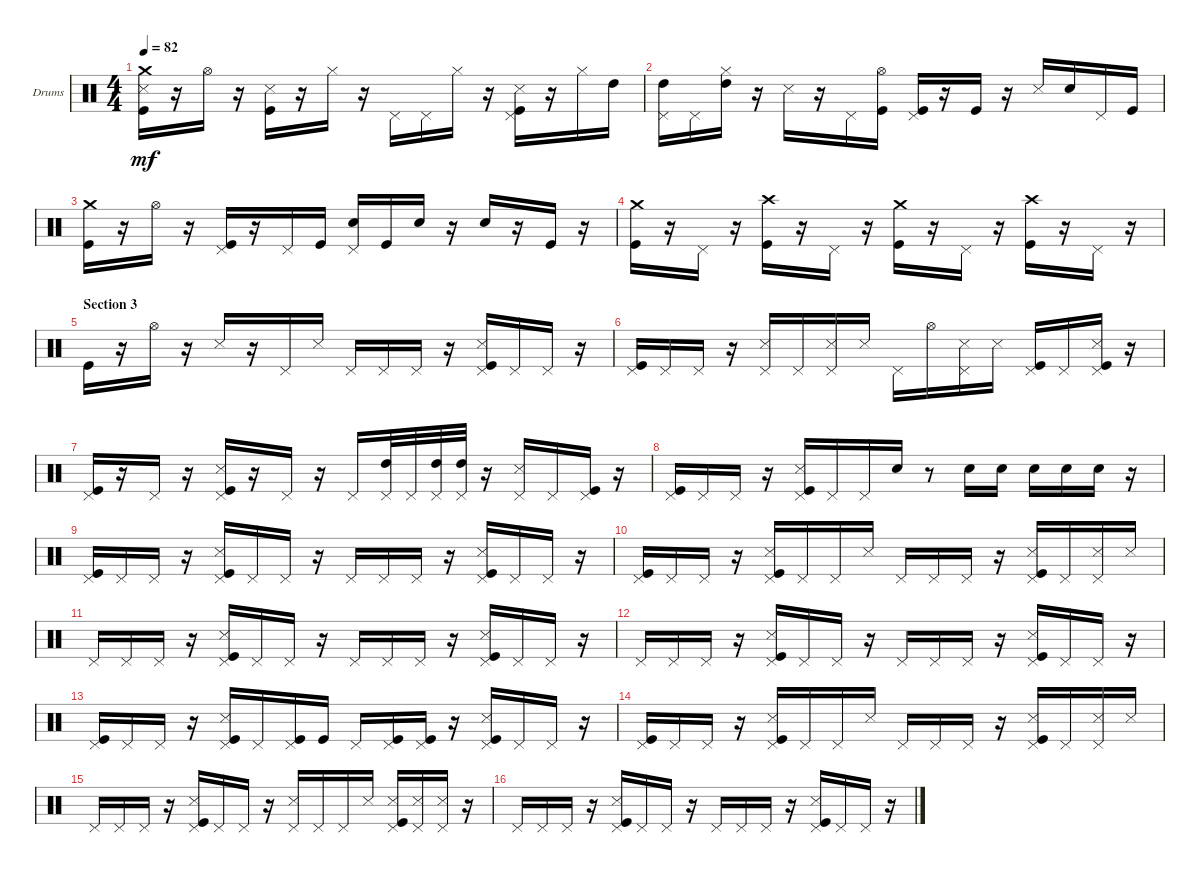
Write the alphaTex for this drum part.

\bracketExtendMode groupsimilarinstruments
\firstSystemTrackNameOrientation horizontal
\otherSystemsTrackNameOrientation horizontal
\track ("Drumkit" "Drums") {instrument percussion}
\staff {score}
\articulation defaults
\ts (4 4)
\tempo 82
\clef neutral
\ks aminor
("Kick (hit)" "Snare (side stick) 3" "Crash medium (hit)").16{dy mf} r.16 "Hi-Hat (open)".16 r.16 ("Kick (hit)" "Snare (side stick) 3").16 r.16 "Hi-Hat (closed)".16 r.16 "Pedal Hi-Hat (hit)".16 "Pedal Hi-Hat (hit)".16 "Hi-Hat (closed)".16 r.16 ("Kick (hit)" "Snare (side stick) 3" "Pedal Hi-Hat (hit)").16 r.16 "Hi-Hat (closed)".16 "High Tom (hit)".16 |
("Pedal Hi-Hat (hit)" "High Tom (hit)").16 "Pedal Hi-Hat (hit)".16 ("Hi-Hat (closed)" "High Tom (hit)").16 r.16 "Snare (side stick) 3".16 r.16 "Pedal Hi-Hat (hit)".16 ("Kick (hit)" "Hi-Hat (open)").16 ("Kick (hit)" "Pedal Hi-Hat (hit)").16 r.16 "Kick (hit)".16 r.16 "Snare (side stick) 3".16 "Snare (hit) 2".16 "Pedal Hi-Hat (hit)".16 "Kick (hit)".16 |
("Kick (hit)" "Crash medium (hit)").16 r.16 "Hi-Hat (open)".16 r.16 ("Kick (hit)" "Pedal Hi-Hat (hit)").16 r.16 "Pedal Hi-Hat (hit)".16 "Kick (hit)".16 ("Snare (hit) 2" "Pedal Hi-Hat (hit)").16 "Kick (hit)".16 "Snare (hit) 2".16 r.16 "Snare (hit) 2".16 r.16 "Kick (hit)".16 r.16 |
("Kick (hit)" "Crash medium (hit)").16 r.16 "Pedal Hi-Hat (hit)".16 r.16 ("Kick (hit)" "Crash high (hit)").16 r.16 "Pedal Hi-Hat (hit)".16 r.16 ("Kick (hit)" "Crash medium (hit)").16 r.16 "Pedal Hi-Hat (hit)".16 r.16 ("Kick (hit)" "Crash high (hit)").16 r.16 "Pedal Hi-Hat (hit)".16 r.16 |
\section ("" "Section 3")
"Kick (hit)".16 r.16 "Hi-Hat (open)".16 r.16 "Snare (side stick) 3".16 r.16 "Pedal Hi-Hat (hit)".16 "Snare (side stick) 3".16 "Pedal Hi-Hat (hit)".16 "Pedal Hi-Hat (hit)".16 "Pedal Hi-Hat (hit)".16 r.16 ("Kick (hit)" "Snare (side stick) 3" "Pedal Hi-Hat (hit)").16 "Pedal Hi-Hat (hit)".16 "Pedal Hi-Hat (hit)".16 r.16 |
("Kick (hit)" "Pedal Hi-Hat (hit)").16 "Pedal Hi-Hat (hit)".16 "Pedal Hi-Hat (hit)".16 r.16 ("Snare (side stick) 3" "Pedal Hi-Hat (hit)").16 "Pedal Hi-Hat (hit)".16 ("Snare (side stick) 3" "Pedal Hi-Hat (hit)").16 "Snare (side stick) 3".16 "Pedal Hi-Hat (hit)".16 "Hi-Hat (open)".16 ("Snare (side stick) 3" "Pedal Hi-Hat (hit)").16 "Snare (side stick) 3".16 ("Kick (hit)" "Pedal Hi-Hat (hit)").16 "Pedal Hi-Hat (hit)".16 ("Snare (side stick) 3" "Kick (hit)" "Pedal Hi-Hat (hit)").16 r.16 |
("Kick (hit)" "Pedal Hi-Hat (hit)").16 r.16 "Pedal Hi-Hat (hit)".16 r.16 ("Kick (hit)" "Snare (side stick) 3" "Pedal Hi-Hat (hit)").16 r.16 "Pedal Hi-Hat (hit)".16 r.16 "Pedal Hi-Hat (hit)".16 ("High Tom (hit)" "Pedal Hi-Hat (hit)").32 "Pedal Hi-Hat (hit)".32 ("High Tom (hit)" "Pedal Hi-Hat (hit)").32 ("Pedal Hi-Hat (hit)" "High Tom (hit)").32 r.16 ("Snare (side stick) 3" "Pedal Hi-Hat (hit)").16 "Pedal Hi-Hat (hit)".16 ("Kick (hit)" "Pedal Hi-Hat (hit)").16 r.16 |
("Kick (hit)" "Pedal Hi-Hat (hit)").16 "Pedal Hi-Hat (hit)".16 "Pedal Hi-Hat (hit)".16 r.16 ("Kick (hit)" "Snare (side stick) 3" "Pedal Hi-Hat (hit)").16 "Pedal Hi-Hat (hit)".16 "Pedal Hi-Hat (hit)".16 "Snare (hit) 2".16 r.8 "Snare (hit) 2".16 "Snare (hit) 2".16 "Snare (hit) 2".16 "Snare (hit) 2".16 "Snare (hit) 2".16 r.16 |
("Kick (hit)" "Pedal Hi-Hat (hit)").16 "Pedal Hi-Hat (hit)".16 "Pedal Hi-Hat (hit)".16 r.16 ("Kick (hit)" "Snare (side stick) 3" "Pedal Hi-Hat (hit)").16 "Pedal Hi-Hat (hit)".16 "Pedal Hi-Hat (hit)".16 r.16 "Pedal Hi-Hat (hit)".16 "Pedal Hi-Hat (hit)".16 "Pedal Hi-Hat (hit)".16 r.16 ("Kick (hit)" "Snare (side stick) 3" "Pedal Hi-Hat (hit)").16 "Pedal Hi-Hat (hit)".16 "Pedal Hi-Hat (hit)".16 r.16 |
("Kick (hit)" "Pedal Hi-Hat (hit)").16 "Pedal Hi-Hat (hit)".16 "Pedal Hi-Hat (hit)".16 r.16 ("Kick (hit)" "Snare (side stick) 3" "Pedal Hi-Hat (hit)").16 "Pedal Hi-Hat (hit)".16 "Pedal Hi-Hat (hit)".16 "Snare (side stick) 3".16 "Pedal Hi-Hat (hit)".16 "Pedal Hi-Hat (hit)".16 "Pedal Hi-Hat (hit)".16 r.16 ("Kick (hit)" "Snare (side stick) 3" "Pedal Hi-Hat (hit)").16 "Pedal Hi-Hat (hit)".16 ("Snare (side stick) 3" "Pedal Hi-Hat (hit)").16 "Snare (side stick) 3".16 |
"Pedal Hi-Hat (hit)".16 "Pedal Hi-Hat (hit)".16 "Pedal Hi-Hat (hit)".16 r.16 ("Kick (hit)" "Snare (side stick) 3" "Pedal Hi-Hat (hit)").16 "Pedal Hi-Hat (hit)".16 "Pedal Hi-Hat (hit)".16 r.16 "Pedal Hi-Hat (hit)".16 "Pedal Hi-Hat (hit)".16 "Pedal Hi-Hat (hit)".16 r.16 ("Kick (hit)" "Snare (side stick) 3" "Pedal Hi-Hat (hit)").16 "Pedal Hi-Hat (hit)".16 "Pedal Hi-Hat (hit)".16 r.16 |
"Pedal Hi-Hat (hit)".16 "Pedal Hi-Hat (hit)".16 "Pedal Hi-Hat (hit)".16 r.16 ("Kick (hit)" "Snare (side stick) 3" "Pedal Hi-Hat (hit)").16 "Pedal Hi-Hat (hit)".16 "Pedal Hi-Hat (hit)".16 r.16 "Pedal Hi-Hat (hit)".16 "Pedal Hi-Hat (hit)".16 "Pedal Hi-Hat (hit)".16 r.16 ("Kick (hit)" "Snare (side stick) 3" "Pedal Hi-Hat (hit)").16 "Pedal Hi-Hat (hit)".16 "Pedal Hi-Hat (hit)".16 r.16 |
("Kick (hit)" "Pedal Hi-Hat (hit)").16 "Pedal Hi-Hat (hit)".16 "Pedal Hi-Hat (hit)".16 r.16 ("Kick (hit)" "Snare (side stick) 3" "Pedal Hi-Hat (hit)").16 "Pedal Hi-Hat (hit)".16 ("Kick (hit)" "Pedal Hi-Hat (hit)").16 "Kick (hit)".16 "Pedal Hi-Hat (hit)".16 ("Kick (hit)" "Pedal Hi-Hat (hit)").16 ("Kick (hit)" "Pedal Hi-Hat (hit)").16 r.16 ("Kick (hit)" "Snare (side stick) 3" "Pedal Hi-Hat (hit)").16 "Pedal Hi-Hat (hit)".16 "Pedal Hi-Hat (hit)".16 r.16 |
("Kick (hit)" "Pedal Hi-Hat (hit)").16 "Pedal Hi-Hat (hit)".16 "Pedal Hi-Hat (hit)".16 r.16 ("Kick (hit)" "Snare (side stick) 3" "Pedal Hi-Hat (hit)").16 "Pedal Hi-Hat (hit)".16 "Pedal Hi-Hat (hit)".16 "Snare (side stick) 3".16 "Pedal Hi-Hat (hit)".16 "Pedal Hi-Hat (hit)".16 "Pedal Hi-Hat (hit)".16 r.16 ("Snare (side stick) 3" "Kick (hit)" "Pedal Hi-Hat (hit)").16 "Pedal Hi-Hat (hit)".16 ("Snare (side stick) 3" "Pedal Hi-Hat (hit)").16 "Snare (side stick) 3".16 |
"Pedal Hi-Hat (hit)".16 "Pedal Hi-Hat (hit)".16 "Pedal Hi-Hat (hit)".16 r.16 ("Kick (hit)" "Snare (side stick) 3" "Pedal Hi-Hat (hit)").16 "Pedal Hi-Hat (hit)".16 "Pedal Hi-Hat (hit)".16 r.16 ("Snare (side stick) 3" "Pedal Hi-Hat (hit)").16 "Pedal Hi-Hat (hit)".16 "Pedal Hi-Hat (hit)".16 "Snare (side stick) 3".16 ("Snare (side stick) 3" "Kick (hit)" "Pedal Hi-Hat (hit)").16 ("Snare (side stick) 3" "Pedal Hi-Hat (hit)").16 ("Snare (side stick) 3" "Pedal Hi-Hat (hit)").16 r.16 |
"Pedal Hi-Hat (hit)".16 "Pedal Hi-Hat (hit)".16 "Pedal Hi-Hat (hit)".16 r.16 ("Kick (hit)" "Snare (side stick) 3" "Pedal Hi-Hat (hit)").16 "Pedal Hi-Hat (hit)".16 "Pedal Hi-Hat (hit)".16 r.16 "Pedal Hi-Hat (hit)".16 "Pedal Hi-Hat (hit)".16 "Pedal Hi-Hat (hit)".16 r.16 ("Kick (hit)" "Snare (side stick) 3" "Pedal Hi-Hat (hit)").16 "Pedal Hi-Hat (hit)".16 "Pedal Hi-Hat (hit)".16 r.16
